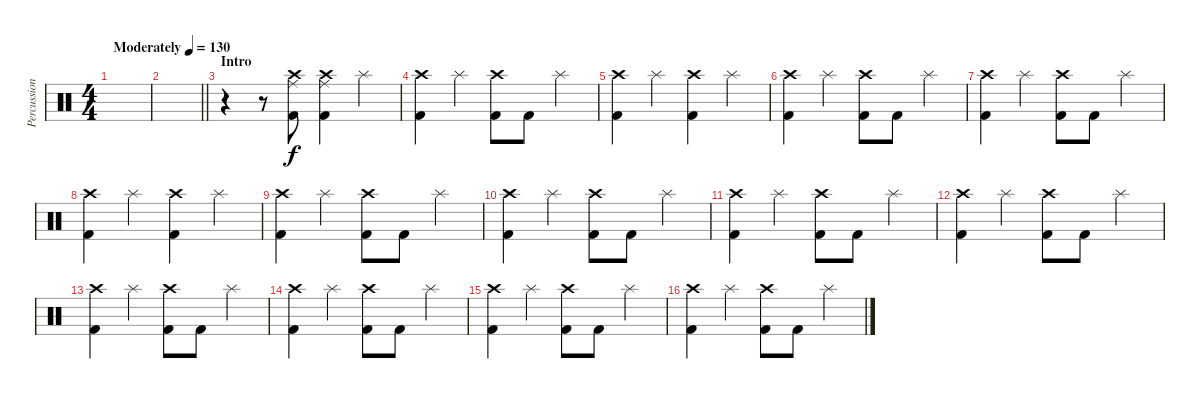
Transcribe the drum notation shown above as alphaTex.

\track ("Percussion" "Percussion") {instrument percussion}
\staff {score}
\articulation defaults
\ts (4 4)
\tempo (130 "Moderately")
\clef neutral
\ks c
|
\barLineRight lightlight
|
\section ("" "Intro")
r.4 r.8 ("Crash high (hit)" "Ride (middle)" "Kick (hit) 2").8 ("Crash high (hit)" "Ride (middle)" "Kick (hit) 2").4 "Splash (hit)".4 |
("Crash high (hit)" "Kick (hit) 2").4 "Splash (hit)".4 ("Crash high (hit)" "Kick (hit) 2").8 "Kick (hit) 2".8 "Splash (hit)".4 |
("Crash high (hit)" "Kick (hit) 2").4 "Splash (hit)".4 ("Crash high (hit)" "Kick (hit) 2").4 "Splash (hit)".4 |
("Crash high (hit)" "Kick (hit) 2").4 "Splash (hit)".4 ("Crash high (hit)" "Kick (hit) 2").8 "Kick (hit) 2".8 "Splash (hit)".4 |
("Crash high (hit)" "Kick (hit) 2").4 "Splash (hit)".4 ("Crash high (hit)" "Kick (hit) 2").8 "Kick (hit) 2".8 "Splash (hit)".4 |
("Crash high (hit)" "Kick (hit) 2").4 "Splash (hit)".4 ("Crash high (hit)" "Kick (hit) 2").4 "Splash (hit)".4 |
("Crash high (hit)" "Kick (hit) 2").4 "Splash (hit)".4 ("Crash high (hit)" "Kick (hit) 2").8 "Kick (hit) 2".8 "Splash (hit)".4 |
("Crash high (hit)" "Kick (hit) 2").4 "Splash (hit)".4 ("Crash high (hit)" "Kick (hit) 2").8 "Kick (hit) 2".8 "Splash (hit)".4 |
("Crash high (hit)" "Kick (hit) 2").4 "Splash (hit)".4 ("Crash high (hit)" "Kick (hit) 2").8 "Kick (hit) 2".8 "Splash (hit)".4 |
("Crash high (hit)" "Kick (hit) 2").4 "Splash (hit)".4 ("Crash high (hit)" "Kick (hit) 2").8 "Kick (hit) 2".8 "Splash (hit)".4 |
("Crash high (hit)" "Kick (hit) 2").4 "Splash (hit)".4 ("Crash high (hit)" "Kick (hit) 2").8 "Kick (hit) 2".8 "Splash (hit)".4 |
("Crash high (hit)" "Kick (hit) 2").4 "Splash (hit)".4 ("Crash high (hit)" "Kick (hit) 2").8 "Kick (hit) 2".8 "Splash (hit)".4 |
("Crash high (hit)" "Kick (hit) 2").4 "Splash (hit)".4 ("Crash high (hit)" "Kick (hit) 2").8 "Kick (hit) 2".8 "Splash (hit)".4 |
("Crash high (hit)" "Kick (hit) 2").4 "Splash (hit)".4 ("Crash high (hit)" "Kick (hit) 2").8 "Kick (hit) 2".8 "Splash (hit)".4
